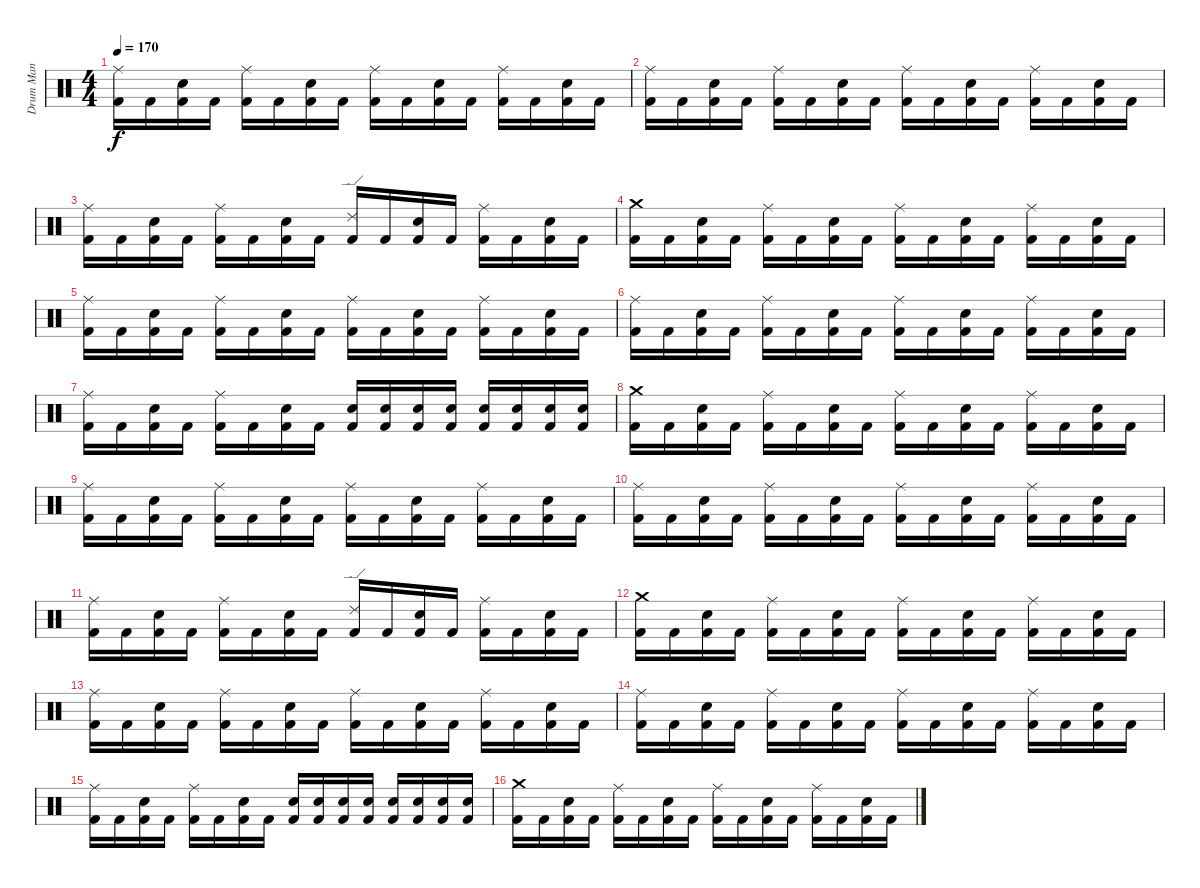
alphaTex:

\track ("Drum Man" "Drum Man") {instrument percussion}
\staff {score}
\articulation defaults
\ts (4 4)
\tempo 170
\clef neutral
\ks c
("Ride (middle)" "Kick (hit) 2").16{dy f} "Kick (hit) 2".16 ("Snare (hit) 2" "Kick (hit) 2").16 "Kick (hit) 2".16 ("Ride (middle)" "Kick (hit) 2").16 "Kick (hit) 2".16 ("Snare (hit) 2" "Kick (hit) 2").16 "Kick (hit) 2".16 ("Ride (middle)" "Kick (hit) 2").16 "Kick (hit) 2".16 ("Snare (hit) 2" "Kick (hit) 2").16 "Kick (hit) 2".16 ("Ride (middle)" "Kick (hit) 2").16 "Kick (hit) 2".16 ("Snare (hit) 2" "Kick (hit) 2").16 "Kick (hit) 2".16 |
("Ride (middle)" "Kick (hit) 2").16 "Kick (hit) 2".16 ("Snare (hit) 2" "Kick (hit) 2").16 "Kick (hit) 2".16 ("Ride (middle)" "Kick (hit) 2").16 "Kick (hit) 2".16 ("Snare (hit) 2" "Kick (hit) 2").16 "Kick (hit) 2".16 ("Ride (middle)" "Kick (hit) 2").16 "Kick (hit) 2".16 ("Snare (hit) 2" "Kick (hit) 2").16 "Kick (hit) 2".16 ("Ride (middle)" "Kick (hit) 2").16 "Kick (hit) 2".16 ("Snare (hit) 2" "Kick (hit) 2").16 "Kick (hit) 2".16 |
("Ride (middle)" "Kick (hit) 2").16 "Kick (hit) 2".16 ("Snare (hit) 2" "Kick (hit) 2").16 "Kick (hit) 2".16 ("Ride (middle)" "Kick (hit) 2").16 "Kick (hit) 2".16 ("Snare (hit) 2" "Kick (hit) 2").16 "Kick (hit) 2".16 ("Ride (edge) 2" "Kick (hit) 2").16 "Kick (hit) 2".16 ("Snare (hit) 2" "Kick (hit) 2").16 "Kick (hit) 2".16 ("Ride (middle)" "Kick (hit) 2").16 "Kick (hit) 2".16 ("Snare (hit) 2" "Kick (hit) 2").16 "Kick (hit) 2".16 |
("Crash medium (hit)" "Kick (hit) 2").16 "Kick (hit) 2".16 ("Snare (hit) 2" "Kick (hit) 2").16 "Kick (hit) 2".16 ("Ride (middle)" "Kick (hit) 2").16 "Kick (hit) 2".16 ("Snare (hit) 2" "Kick (hit) 2").16 "Kick (hit) 2".16 ("Ride (middle)" "Kick (hit) 2").16 "Kick (hit) 2".16 ("Snare (hit) 2" "Kick (hit) 2").16 "Kick (hit) 2".16 ("Ride (middle)" "Kick (hit) 2").16 "Kick (hit) 2".16 ("Snare (hit) 2" "Kick (hit) 2").16 "Kick (hit) 2".16 |
("Ride (middle)" "Kick (hit) 2").16 "Kick (hit) 2".16 ("Snare (hit) 2" "Kick (hit) 2").16 "Kick (hit) 2".16 ("Ride (middle)" "Kick (hit) 2").16 "Kick (hit) 2".16 ("Snare (hit) 2" "Kick (hit) 2").16 "Kick (hit) 2".16 ("Ride (middle)" "Kick (hit) 2").16 "Kick (hit) 2".16 ("Snare (hit) 2" "Kick (hit) 2").16 "Kick (hit) 2".16 ("Ride (middle)" "Kick (hit) 2").16 "Kick (hit) 2".16 ("Snare (hit) 2" "Kick (hit) 2").16 "Kick (hit) 2".16 |
("Ride (middle)" "Kick (hit) 2").16 "Kick (hit) 2".16 ("Snare (hit) 2" "Kick (hit) 2").16 "Kick (hit) 2".16 ("Ride (middle)" "Kick (hit) 2").16 "Kick (hit) 2".16 ("Snare (hit) 2" "Kick (hit) 2").16 "Kick (hit) 2".16 ("Ride (middle)" "Kick (hit) 2").16 "Kick (hit) 2".16 ("Snare (hit) 2" "Kick (hit) 2").16 "Kick (hit) 2".16 ("Ride (middle)" "Kick (hit) 2").16 "Kick (hit) 2".16 ("Snare (hit) 2" "Kick (hit) 2").16 "Kick (hit) 2".16 |
("Ride (middle)" "Kick (hit) 2").16 "Kick (hit) 2".16 ("Snare (hit) 2" "Kick (hit) 2").16 "Kick (hit) 2".16 ("Ride (middle)" "Kick (hit) 2").16 "Kick (hit) 2".16 ("Snare (hit) 2" "Kick (hit) 2").16 "Kick (hit) 2".16 ("Electric Snare (hit)" "Kick (hit) 2").16 ("Electric Snare (hit)" "Kick (hit) 2").16 ("Electric Snare (hit)" "Kick (hit) 2").16 ("Electric Snare (hit)" "Kick (hit) 2").16 ("Electric Snare (hit)" "Kick (hit) 2").16 ("Electric Snare (hit)" "Kick (hit) 2").16 ("Electric Snare (hit)" "Kick (hit) 2").16 ("Electric Snare (hit)" "Kick (hit) 2").16 |
("Crash medium (hit)" "Kick (hit) 2").16 "Kick (hit) 2".16 ("Snare (hit) 2" "Kick (hit) 2").16 "Kick (hit) 2".16 ("Ride (middle)" "Kick (hit) 2").16 "Kick (hit) 2".16 ("Snare (hit) 2" "Kick (hit) 2").16 "Kick (hit) 2".16 ("Ride (middle)" "Kick (hit) 2").16 "Kick (hit) 2".16 ("Snare (hit) 2" "Kick (hit) 2").16 "Kick (hit) 2".16 ("Ride (middle)" "Kick (hit) 2").16 "Kick (hit) 2".16 ("Snare (hit) 2" "Kick (hit) 2").16 "Kick (hit) 2".16 |
("Ride (middle)" "Kick (hit) 2").16 "Kick (hit) 2".16 ("Snare (hit) 2" "Kick (hit) 2").16 "Kick (hit) 2".16 ("Ride (middle)" "Kick (hit) 2").16 "Kick (hit) 2".16 ("Snare (hit) 2" "Kick (hit) 2").16 "Kick (hit) 2".16 ("Ride (middle)" "Kick (hit) 2").16 "Kick (hit) 2".16 ("Snare (hit) 2" "Kick (hit) 2").16 "Kick (hit) 2".16 ("Ride (middle)" "Kick (hit) 2").16 "Kick (hit) 2".16 ("Snare (hit) 2" "Kick (hit) 2").16 "Kick (hit) 2".16 |
("Ride (middle)" "Kick (hit) 2").16 "Kick (hit) 2".16 ("Snare (hit) 2" "Kick (hit) 2").16 "Kick (hit) 2".16 ("Ride (middle)" "Kick (hit) 2").16 "Kick (hit) 2".16 ("Snare (hit) 2" "Kick (hit) 2").16 "Kick (hit) 2".16 ("Ride (middle)" "Kick (hit) 2").16 "Kick (hit) 2".16 ("Snare (hit) 2" "Kick (hit) 2").16 "Kick (hit) 2".16 ("Ride (middle)" "Kick (hit) 2").16 "Kick (hit) 2".16 ("Snare (hit) 2" "Kick (hit) 2").16 "Kick (hit) 2".16 |
("Ride (middle)" "Kick (hit) 2").16 "Kick (hit) 2".16 ("Snare (hit) 2" "Kick (hit) 2").16 "Kick (hit) 2".16 ("Ride (middle)" "Kick (hit) 2").16 "Kick (hit) 2".16 ("Snare (hit) 2" "Kick (hit) 2").16 "Kick (hit) 2".16 ("Ride (edge) 2" "Kick (hit) 2").16 "Kick (hit) 2".16 ("Snare (hit) 2" "Kick (hit) 2").16 "Kick (hit) 2".16 ("Ride (middle)" "Kick (hit) 2").16 "Kick (hit) 2".16 ("Snare (hit) 2" "Kick (hit) 2").16 "Kick (hit) 2".16 |
("Crash medium (hit)" "Kick (hit) 2").16 "Kick (hit) 2".16 ("Snare (hit) 2" "Kick (hit) 2").16 "Kick (hit) 2".16 ("Ride (middle)" "Kick (hit) 2").16 "Kick (hit) 2".16 ("Snare (hit) 2" "Kick (hit) 2").16 "Kick (hit) 2".16 ("Ride (middle)" "Kick (hit) 2").16 "Kick (hit) 2".16 ("Snare (hit) 2" "Kick (hit) 2").16 "Kick (hit) 2".16 ("Ride (middle)" "Kick (hit) 2").16 "Kick (hit) 2".16 ("Snare (hit) 2" "Kick (hit) 2").16 "Kick (hit) 2".16 |
("Ride (middle)" "Kick (hit) 2").16 "Kick (hit) 2".16 ("Snare (hit) 2" "Kick (hit) 2").16 "Kick (hit) 2".16 ("Ride (middle)" "Kick (hit) 2").16 "Kick (hit) 2".16 ("Snare (hit) 2" "Kick (hit) 2").16 "Kick (hit) 2".16 ("Ride (middle)" "Kick (hit) 2").16 "Kick (hit) 2".16 ("Snare (hit) 2" "Kick (hit) 2").16 "Kick (hit) 2".16 ("Ride (middle)" "Kick (hit) 2").16 "Kick (hit) 2".16 ("Snare (hit) 2" "Kick (hit) 2").16 "Kick (hit) 2".16 |
("Ride (middle)" "Kick (hit) 2").16 "Kick (hit) 2".16 ("Snare (hit) 2" "Kick (hit) 2").16 "Kick (hit) 2".16 ("Ride (middle)" "Kick (hit) 2").16 "Kick (hit) 2".16 ("Snare (hit) 2" "Kick (hit) 2").16 "Kick (hit) 2".16 ("Ride (middle)" "Kick (hit) 2").16 "Kick (hit) 2".16 ("Snare (hit) 2" "Kick (hit) 2").16 "Kick (hit) 2".16 ("Ride (middle)" "Kick (hit) 2").16 "Kick (hit) 2".16 ("Snare (hit) 2" "Kick (hit) 2").16 "Kick (hit) 2".16 |
("Ride (middle)" "Kick (hit) 2").16 "Kick (hit) 2".16 ("Snare (hit) 2" "Kick (hit) 2").16 "Kick (hit) 2".16 ("Ride (middle)" "Kick (hit) 2").16 "Kick (hit) 2".16 ("Snare (hit) 2" "Kick (hit) 2").16 "Kick (hit) 2".16 ("Electric Snare (hit)" "Kick (hit) 2").16 ("Electric Snare (hit)" "Kick (hit) 2").16 ("Electric Snare (hit)" "Kick (hit) 2").16 ("Electric Snare (hit)" "Kick (hit) 2").16 ("Electric Snare (hit)" "Kick (hit) 2").16 ("Electric Snare (hit)" "Kick (hit) 2").16 ("Electric Snare (hit)" "Kick (hit) 2").16 ("Electric Snare (hit)" "Kick (hit) 2").16 |
("Crash medium (hit)" "Kick (hit) 2").16 "Kick (hit) 2".16 ("Snare (hit) 2" "Kick (hit) 2").16 "Kick (hit) 2".16 ("Ride (middle)" "Kick (hit) 2").16 "Kick (hit) 2".16 ("Snare (hit) 2" "Kick (hit) 2").16 "Kick (hit) 2".16 ("Ride (middle)" "Kick (hit) 2").16 "Kick (hit) 2".16 ("Snare (hit) 2" "Kick (hit) 2").16 "Kick (hit) 2".16 ("Ride (middle)" "Kick (hit) 2").16 "Kick (hit) 2".16 ("Snare (hit) 2" "Kick (hit) 2").16 "Kick (hit) 2".16
